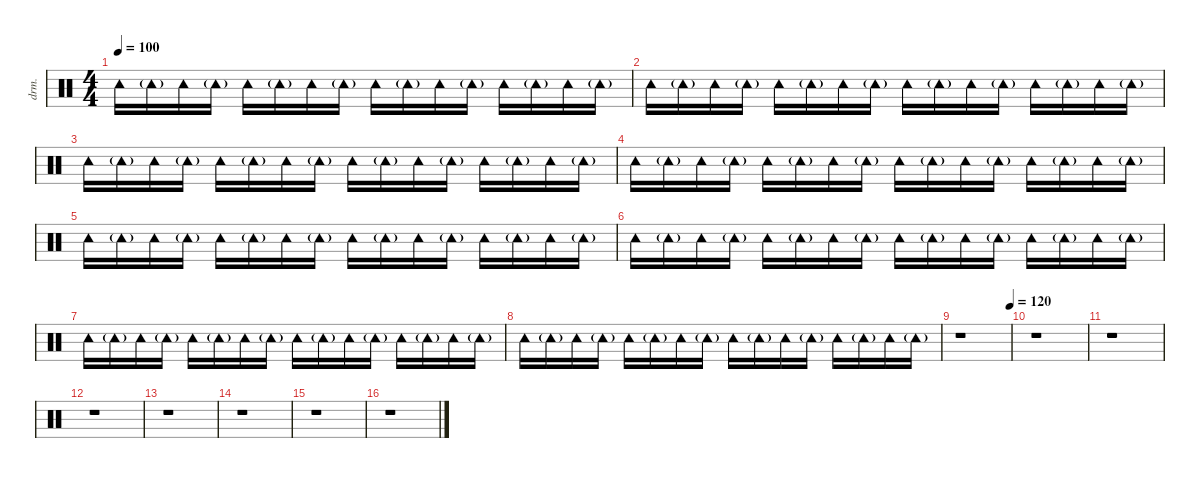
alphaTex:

\defaultSystemsLayout 4
\hideDynamics
\bracketExtendMode nobrackets
\otherSystemsTrackNameOrientation horizontal
\track ("Aux. Percussion" "drm.") {instrument percussion}
\staff {score}
\articulation defaults
\ts (4 4)
\tempo 100
\clef neutral
\ks c "Tambourine (hit)".16{dy mf beam Down} "Tambourine (hit)"{g}.16{dy mp beam Down} "Tambourine (hit)".16{beam Down} "Tambourine (hit)"{g}.16{beam Down} "Tambourine (hit)".16{dy mf beam Down} "Tambourine (hit)"{g}.16{dy mp beam Down} "Tambourine (hit)".16{beam Down} "Tambourine (hit)"{g}.16{beam Down} "Tambourine (hit)".16{dy mf beam Down} "Tambourine (hit)"{g}.16{dy mp beam Down} "Tambourine (hit)".16{beam Down} "Tambourine (hit)"{g}.16{beam Down} "Tambourine (hit)".16{dy mf beam Down} "Tambourine (hit)"{g}.16{dy mp beam Down} "Tambourine (hit)".16{beam Down} "Tambourine (hit)"{g}.16{beam Down}
|
"Tambourine (hit)".16{dy mf beam Down} "Tambourine (hit)"{g}.16{dy mp beam Down} "Tambourine (hit)".16{beam Down} "Tambourine (hit)"{g}.16{beam Down} "Tambourine (hit)".16{dy mf beam Down} "Tambourine (hit)"{g}.16{dy mp beam Down} "Tambourine (hit)".16{beam Down} "Tambourine (hit)"{g}.16{beam Down} "Tambourine (hit)".16{dy mf beam Down} "Tambourine (hit)"{g}.16{dy mp beam Down} "Tambourine (hit)".16{beam Down} "Tambourine (hit)"{g}.16{beam Down} "Tambourine (hit)".16{dy mf beam Down} "Tambourine (hit)"{g}.16{dy mp beam Down} "Tambourine (hit)".16{beam Down} "Tambourine (hit)"{g}.16{beam Down} |
"Tambourine (hit)".16{dy mf beam Down} "Tambourine (hit)"{g}.16{dy mp beam Down} "Tambourine (hit)".16{beam Down} "Tambourine (hit)"{g}.16{beam Down} "Tambourine (hit)".16{dy mf beam Down} "Tambourine (hit)"{g}.16{dy mp beam Down} "Tambourine (hit)".16{beam Down} "Tambourine (hit)"{g}.16{beam Down} "Tambourine (hit)".16{dy mf beam Down} "Tambourine (hit)"{g}.16{dy mp beam Down} "Tambourine (hit)".16{beam Down} "Tambourine (hit)"{g}.16{beam Down} "Tambourine (hit)".16{dy mf beam Down} "Tambourine (hit)"{g}.16{dy mp beam Down} "Tambourine (hit)".16{beam Down} "Tambourine (hit)"{g}.16{beam Down} |
"Tambourine (hit)".16{dy mf beam Down} "Tambourine (hit)"{g}.16{dy mp beam Down} "Tambourine (hit)".16{beam Down} "Tambourine (hit)"{g}.16{beam Down} "Tambourine (hit)".16{dy mf beam Down} "Tambourine (hit)"{g}.16{dy mp beam Down} "Tambourine (hit)".16{beam Down} "Tambourine (hit)"{g}.16{beam Down} "Tambourine (hit)".16{dy mf beam Down} "Tambourine (hit)"{g}.16{dy mp beam Down} "Tambourine (hit)".16{beam Down} "Tambourine (hit)"{g}.16{beam Down} "Tambourine (hit)".16{dy mf beam Down} "Tambourine (hit)"{g}.16{dy mp beam Down} "Tambourine (hit)".16{beam Down} "Tambourine (hit)"{g}.16{beam Down} |
"Tambourine (hit)".16{dy mf beam Down} "Tambourine (hit)"{g}.16{dy mp beam Down} "Tambourine (hit)".16{beam Down} "Tambourine (hit)"{g}.16{beam Down} "Tambourine (hit)".16{dy mf beam Down} "Tambourine (hit)"{g}.16{dy mp beam Down} "Tambourine (hit)".16{beam Down} "Tambourine (hit)"{g}.16{beam Down} "Tambourine (hit)".16{dy mf beam Down} "Tambourine (hit)"{g}.16{dy mp beam Down} "Tambourine (hit)".16{beam Down} "Tambourine (hit)"{g}.16{beam Down} "Tambourine (hit)".16{dy mf beam Down} "Tambourine (hit)"{g}.16{dy mp beam Down} "Tambourine (hit)".16{beam Down} "Tambourine (hit)"{g}.16{beam Down} |
"Tambourine (hit)".16{dy mf beam Down} "Tambourine (hit)"{g}.16{dy mp beam Down} "Tambourine (hit)".16{beam Down} "Tambourine (hit)"{g}.16{beam Down} "Tambourine (hit)".16{dy mf beam Down} "Tambourine (hit)"{g}.16{dy mp beam Down} "Tambourine (hit)".16{beam Down} "Tambourine (hit)"{g}.16{beam Down} "Tambourine (hit)".16{dy mf beam Down} "Tambourine (hit)"{g}.16{dy mp beam Down} "Tambourine (hit)".16{beam Down} "Tambourine (hit)"{g}.16{beam Down} "Tambourine (hit)".16{dy mf beam Down} "Tambourine (hit)"{g}.16{dy mp beam Down} "Tambourine (hit)".16{beam Down} "Tambourine (hit)"{g}.16{beam Down} |
"Tambourine (hit)".16{dy mf beam Down} "Tambourine (hit)"{g}.16{dy mp beam Down} "Tambourine (hit)".16{beam Down} "Tambourine (hit)"{g}.16{beam Down} "Tambourine (hit)".16{dy mf beam Down} "Tambourine (hit)"{g}.16{dy mp beam Down} "Tambourine (hit)".16{beam Down} "Tambourine (hit)"{g}.16{beam Down} "Tambourine (hit)".16{dy mf beam Down} "Tambourine (hit)"{g}.16{dy mp beam Down} "Tambourine (hit)".16{beam Down} "Tambourine (hit)"{g}.16{beam Down} "Tambourine (hit)".16{dy mf beam Down} "Tambourine (hit)"{g}.16{dy mp beam Down} "Tambourine (hit)".16{beam Down} "Tambourine (hit)"{g}.16{beam Down} |
"Tambourine (hit)".16{dy mf beam Down} "Tambourine (hit)"{g}.16{dy mp beam Down} "Tambourine (hit)".16{beam Down} "Tambourine (hit)"{g}.16{beam Down} "Tambourine (hit)".16{dy mf beam Down} "Tambourine (hit)"{g}.16{dy mp beam Down} "Tambourine (hit)".16{beam Down} "Tambourine (hit)"{g}.16{beam Down} "Tambourine (hit)".16{dy mf beam Down} "Tambourine (hit)"{g}.16{dy mp beam Down} "Tambourine (hit)".16{beam Down} "Tambourine (hit)"{g}.16{beam Down} "Tambourine (hit)".16{dy mf beam Down} "Tambourine (hit)"{g}.16{dy mp beam Down} "Tambourine (hit)".16{beam Down} "Tambourine (hit)"{g}.16{beam Down} |
\tempo (120 1)
r.1{beam Down} |
r.1{beam Down} |
r.1{beam Down} |
r.1{beam Down} |
r.1{beam Down} |
r.1{beam Down} |
r.1{beam Down} |
r.1{beam Down}
